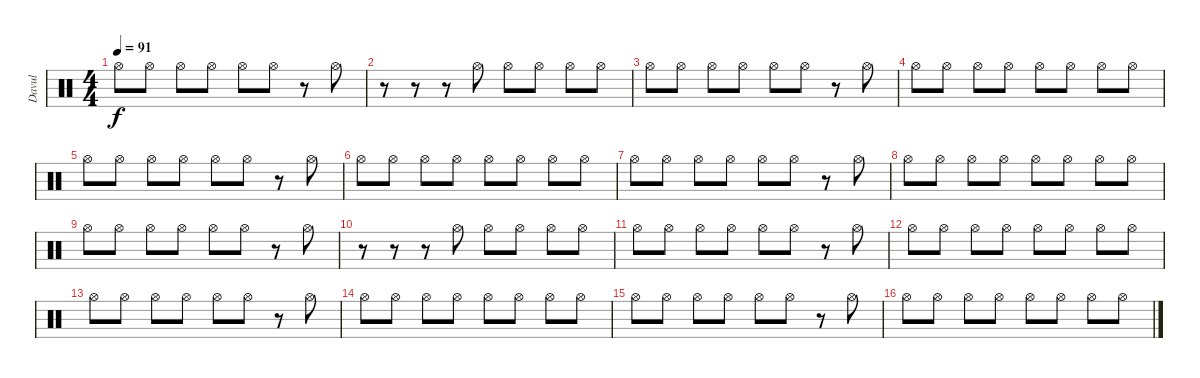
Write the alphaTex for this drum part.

\track ("Davul" "Davul") {instrument percussion}
\staff {score}
\articulation defaults
\ts (4 4)
\tempo 91
\clef neutral
\ks c "Hi-Hat (open)".8{dy f} "Hi-Hat (open)".8 "Hi-Hat (open)".8 "Hi-Hat (open)".8 "Hi-Hat (open)".8 "Hi-Hat (open)".8
r.8 "Hi-Hat (open)".8 |
r.8 r.8 r.8 "Hi-Hat (open)".8 "Hi-Hat (open)".8 "Hi-Hat (open)".8 "Hi-Hat (open)".8 "Hi-Hat (open)".8 |
"Hi-Hat (open)".8 "Hi-Hat (open)".8 "Hi-Hat (open)".8 "Hi-Hat (open)".8 "Hi-Hat (open)".8 "Hi-Hat (open)".8 r.8 "Hi-Hat (open)".8 |
"Hi-Hat (open)".8 "Hi-Hat (open)".8 "Hi-Hat (open)".8 "Hi-Hat (open)".8 "Hi-Hat (open)".8 "Hi-Hat (open)".8 "Hi-Hat (open)".8 "Hi-Hat (open)".8 |
"Hi-Hat (open)".8 "Hi-Hat (open)".8 "Hi-Hat (open)".8 "Hi-Hat (open)".8 "Hi-Hat (open)".8 "Hi-Hat (open)".8 r.8 "Hi-Hat (open)".8 |
"Hi-Hat (open)".8 "Hi-Hat (open)".8 "Hi-Hat (open)".8 "Hi-Hat (open)".8 "Hi-Hat (open)".8 "Hi-Hat (open)".8 "Hi-Hat (open)".8 "Hi-Hat (open)".8 |
"Hi-Hat (open)".8 "Hi-Hat (open)".8 "Hi-Hat (open)".8 "Hi-Hat (open)".8 "Hi-Hat (open)".8 "Hi-Hat (open)".8 r.8 "Hi-Hat (open)".8 |
"Hi-Hat (open)".8 "Hi-Hat (open)".8 "Hi-Hat (open)".8 "Hi-Hat (open)".8 "Hi-Hat (open)".8 "Hi-Hat (open)".8 "Hi-Hat (open)".8 "Hi-Hat (open)".8 |
"Hi-Hat (open)".8 "Hi-Hat (open)".8 "Hi-Hat (open)".8 "Hi-Hat (open)".8 "Hi-Hat (open)".8 "Hi-Hat (open)".8 r.8 "Hi-Hat (open)".8 |
r.8 r.8 r.8 "Hi-Hat (open)".8 "Hi-Hat (open)".8 "Hi-Hat (open)".8 "Hi-Hat (open)".8 "Hi-Hat (open)".8 |
"Hi-Hat (open)".8 "Hi-Hat (open)".8 "Hi-Hat (open)".8 "Hi-Hat (open)".8 "Hi-Hat (open)".8 "Hi-Hat (open)".8 r.8 "Hi-Hat (open)".8 |
"Hi-Hat (open)".8 "Hi-Hat (open)".8 "Hi-Hat (open)".8 "Hi-Hat (open)".8 "Hi-Hat (open)".8 "Hi-Hat (open)".8 "Hi-Hat (open)".8 "Hi-Hat (open)".8 |
"Hi-Hat (open)".8 "Hi-Hat (open)".8 "Hi-Hat (open)".8 "Hi-Hat (open)".8 "Hi-Hat (open)".8 "Hi-Hat (open)".8 r.8 "Hi-Hat (open)".8 |
"Hi-Hat (open)".8 "Hi-Hat (open)".8 "Hi-Hat (open)".8 "Hi-Hat (open)".8 "Hi-Hat (open)".8 "Hi-Hat (open)".8 "Hi-Hat (open)".8 "Hi-Hat (open)".8 |
"Hi-Hat (open)".8 "Hi-Hat (open)".8 "Hi-Hat (open)".8 "Hi-Hat (open)".8 "Hi-Hat (open)".8 "Hi-Hat (open)".8 r.8 "Hi-Hat (open)".8 |
"Hi-Hat (open)".8 "Hi-Hat (open)".8 "Hi-Hat (open)".8 "Hi-Hat (open)".8 "Hi-Hat (open)".8 "Hi-Hat (open)".8 "Hi-Hat (open)".8 "Hi-Hat (open)".8
